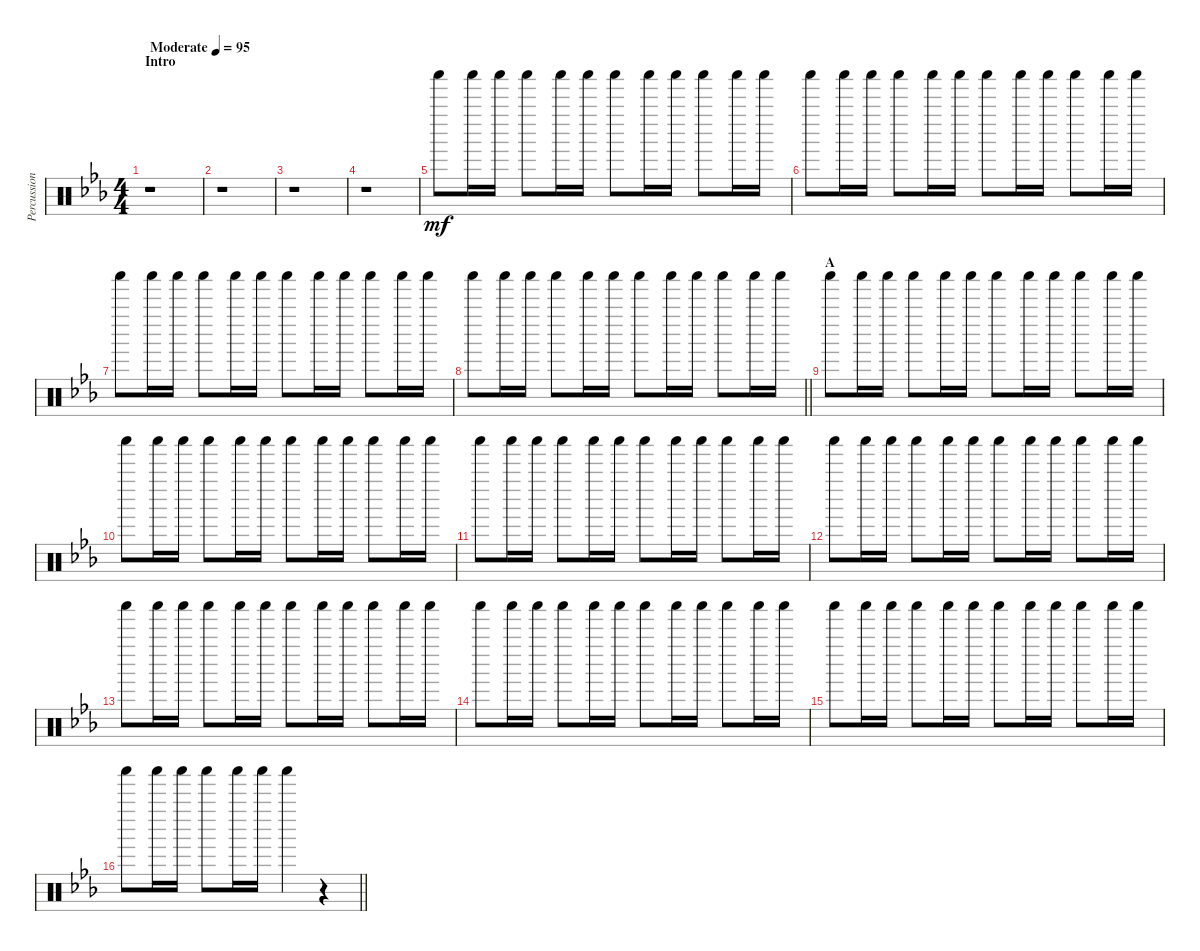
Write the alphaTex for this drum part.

\track ("Percussion" "Percussion") {instrument percussion}
\staff {score}
\articulation defaults
\ts (4 4)
\section ("" "Intro")
\tempo (95 "Moderate")
\clef neutral
\ks cminor
r.1{dy mf} |
r.1 |
r.1 |
r.1 |
"Shaker (hit)".8 "Shaker (hit)".16 "Shaker (hit)".16 "Shaker (hit)".8 "Shaker (hit)".16 "Shaker (hit)".16 "Shaker (hit)".8 "Shaker (hit)".16 "Shaker (hit)".16 "Shaker (hit)".8 "Shaker (hit)".16 "Shaker (hit)".16 |
"Shaker (hit)".8 "Shaker (hit)".16 "Shaker (hit)".16 "Shaker (hit)".8 "Shaker (hit)".16 "Shaker (hit)".16 "Shaker (hit)".8 "Shaker (hit)".16 "Shaker (hit)".16 "Shaker (hit)".8 "Shaker (hit)".16 "Shaker (hit)".16 |
"Shaker (hit)".8 "Shaker (hit)".16 "Shaker (hit)".16 "Shaker (hit)".8 "Shaker (hit)".16 "Shaker (hit)".16 "Shaker (hit)".8 "Shaker (hit)".16 "Shaker (hit)".16 "Shaker (hit)".8 "Shaker (hit)".16 "Shaker (hit)".16 |
\barLineRight lightlight "Shaker (hit)".8 "Shaker (hit)".16 "Shaker (hit)".16 "Shaker (hit)".8 "Shaker (hit)".16 "Shaker (hit)".16 "Shaker (hit)".8 "Shaker (hit)".16 "Shaker (hit)".16 "Shaker (hit)".8 "Shaker (hit)".16 "Shaker (hit)".16
|
\section ("" "A")
"Shaker (hit)".8 "Shaker (hit)".16 "Shaker (hit)".16 "Shaker (hit)".8 "Shaker (hit)".16 "Shaker (hit)".16 "Shaker (hit)".8 "Shaker (hit)".16 "Shaker (hit)".16 "Shaker (hit)".8 "Shaker (hit)".16 "Shaker (hit)".16 |
"Shaker (hit)".8 "Shaker (hit)".16 "Shaker (hit)".16 "Shaker (hit)".8 "Shaker (hit)".16 "Shaker (hit)".16 "Shaker (hit)".8 "Shaker (hit)".16 "Shaker (hit)".16 "Shaker (hit)".8 "Shaker (hit)".16 "Shaker (hit)".16 |
"Shaker (hit)".8 "Shaker (hit)".16 "Shaker (hit)".16 "Shaker (hit)".8 "Shaker (hit)".16 "Shaker (hit)".16 "Shaker (hit)".8 "Shaker (hit)".16 "Shaker (hit)".16 "Shaker (hit)".8 "Shaker (hit)".16 "Shaker (hit)".16 |
"Shaker (hit)".8 "Shaker (hit)".16 "Shaker (hit)".16 "Shaker (hit)".8 "Shaker (hit)".16 "Shaker (hit)".16 "Shaker (hit)".8 "Shaker (hit)".16 "Shaker (hit)".16 "Shaker (hit)".8 "Shaker (hit)".16 "Shaker (hit)".16 |
"Shaker (hit)".8 "Shaker (hit)".16 "Shaker (hit)".16 "Shaker (hit)".8 "Shaker (hit)".16 "Shaker (hit)".16 "Shaker (hit)".8 "Shaker (hit)".16 "Shaker (hit)".16 "Shaker (hit)".8 "Shaker (hit)".16 "Shaker (hit)".16 |
"Shaker (hit)".8 "Shaker (hit)".16 "Shaker (hit)".16 "Shaker (hit)".8 "Shaker (hit)".16 "Shaker (hit)".16 "Shaker (hit)".8 "Shaker (hit)".16 "Shaker (hit)".16 "Shaker (hit)".8 "Shaker (hit)".16 "Shaker (hit)".16 |
"Shaker (hit)".8 "Shaker (hit)".16 "Shaker (hit)".16 "Shaker (hit)".8 "Shaker (hit)".16 "Shaker (hit)".16 "Shaker (hit)".8 "Shaker (hit)".16 "Shaker (hit)".16 "Shaker (hit)".8 "Shaker (hit)".16 "Shaker (hit)".16 |
\barLineRight lightlight "Shaker (hit)".8 "Shaker (hit)".16 "Shaker (hit)".16 "Shaker (hit)".8 "Shaker (hit)".16 "Shaker (hit)".16 "Shaker (hit)".4
r.4
